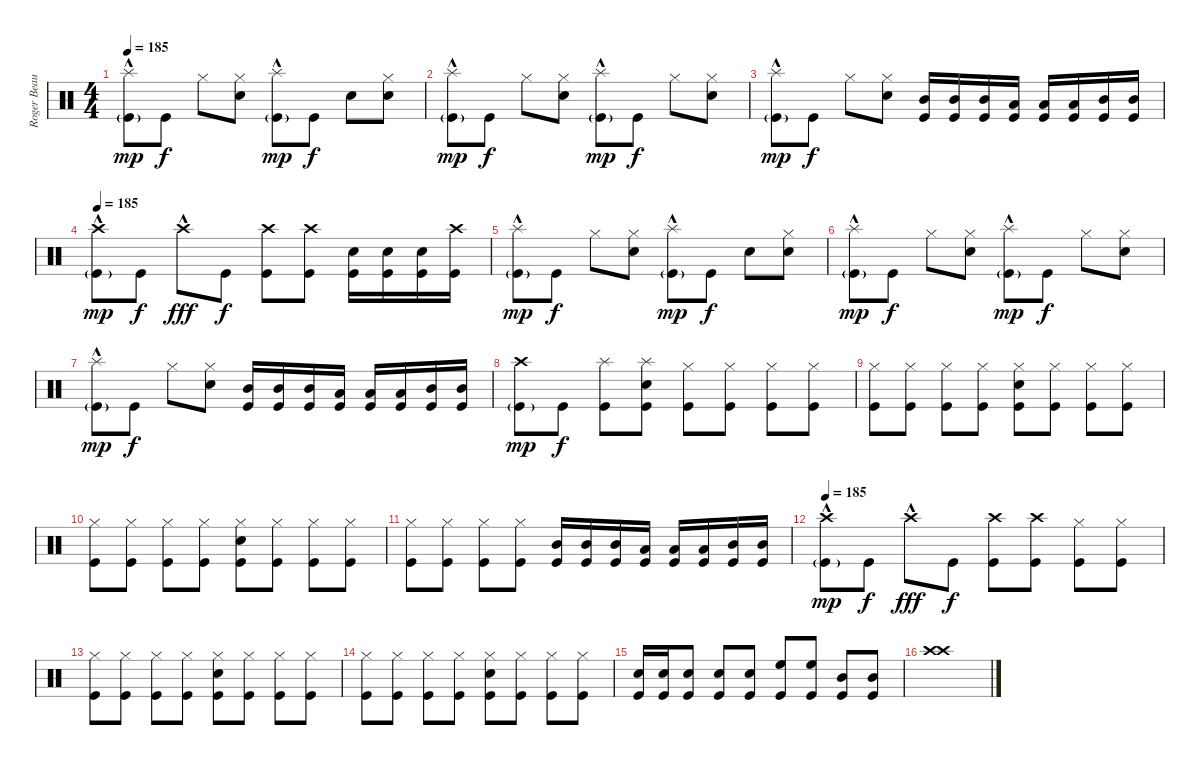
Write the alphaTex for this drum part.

\track ("Roger Beaujard - Drum Programming  Sam I" "Roger Beau") {instrument percussion}
\staff {score}
\articulation defaults
\ts (4 4)
\tempo 185
\clef neutral
\ks c
("Splash (hit)"{hac} "Kick (hit)"{g}).8{dy mp} "Kick (hit)".8{dy f} "Hi-Hat (closed)".8 ("Hi-Hat (closed)" "Snare (hit) 2").8 ("Splash (hit)"{hac} "Kick (hit)"{g}).8{dy mp} "Kick (hit)".8{dy f} "Snare (hit)".8 ("Hi-Hat (closed)" "Snare (hit) 2").8 |
("Splash (hit)"{hac} "Kick (hit)"{g}).8{dy mp} "Kick (hit)".8{dy f} "Hi-Hat (closed)".8 ("Hi-Hat (closed)" "Snare (hit) 2").8 ("Splash (hit)"{hac} "Kick (hit)"{g}).8{dy mp} "Kick (hit)".8{dy f} "Hi-Hat (closed)".8 ("Hi-Hat (closed)" "Snare (hit) 2").8 |
("Splash (hit)"{hac} "Kick (hit)"{g}).8{dy mp} "Kick (hit)".8{dy f} "Hi-Hat (closed)".8 ("Hi-Hat (closed)" "Snare (hit) 2").8 ("Mid Tom (hit)" "Kick (hit)").16 ("Mid Tom (hit)" "Kick (hit)").16 ("Mid Tom (hit)" "Kick (hit)").16 ("Low Tom (hit)" "Kick (hit)").16 ("Low Tom (hit)" "Kick (hit)").16 ("Low Tom (hit)" "Kick (hit)").16 ("Mid Tom (hit)" "Kick (hit)").16 ("Mid Tom (hit)" "Kick (hit)").16 |
\tempo 185
("Crash high (hit)"{hac} "Kick (hit)"{g}).8{dy mp} "Kick (hit)".8{dy f} "Crash high (hit)"{hac}.8{dy fff} "Kick (hit)".8{dy f} ("Crash high (hit)" "Kick (hit)").8 ("Crash high (hit)" "Kick (hit)").8 ("Electric Snare (hit)" "Kick (hit)").16 ("Electric Snare (hit)" "Kick (hit)").16 ("Electric Snare (hit)" "Kick (hit)").16 ("Crash high (hit)" "Kick (hit)").16 |
("Splash (hit)"{hac} "Kick (hit)"{g}).8{dy mp} "Kick (hit)".8{dy f} "Hi-Hat (closed)".8 ("Hi-Hat (closed)" "Snare (hit) 2").8 ("Splash (hit)"{hac} "Kick (hit)"{g}).8{dy mp} "Kick (hit)".8{dy f} "Snare (hit)".8 ("Hi-Hat (closed)" "Snare (hit) 2").8 |
("Splash (hit)"{hac} "Kick (hit)"{g}).8{dy mp} "Kick (hit)".8{dy f} "Hi-Hat (closed)".8 ("Hi-Hat (closed)" "Snare (hit) 2").8 ("Splash (hit)"{hac} "Kick (hit)"{g}).8{dy mp} "Kick (hit)".8{dy f} "Hi-Hat (closed)".8 ("Hi-Hat (closed)" "Snare (hit) 2").8 |
("Splash (hit)"{hac} "Kick (hit)"{g}).8{dy mp} "Kick (hit)".8{dy f} "Hi-Hat (closed)".8 ("Hi-Hat (closed)" "Snare (hit) 2").8 ("Mid Tom (hit)" "Kick (hit)").16 ("Mid Tom (hit)" "Kick (hit)").16 ("Mid Tom (hit)" "Kick (hit)").16 ("Low Tom (hit)" "Kick (hit)").16 ("Low Tom (hit)" "Kick (hit)").16 ("Low Tom (hit)" "Kick (hit)").16 ("Mid Tom (hit)" "Kick (hit)").16 ("Mid Tom (hit)" "Kick (hit)").16 |
("Crash high (hit)" "Kick (hit)"{g}).8{dy mp} "Kick (hit)".8{dy f} ("Splash (hit)" "Kick (hit)").8 ("Splash (hit)" "Electric Snare (hit)" "Kick (hit)").8 ("Hi-Hat (closed)" "Kick (hit)").8 ("Hi-Hat (closed)" "Kick (hit)").8 ("Hi-Hat (closed)" "Kick (hit)").8 ("Hi-Hat (closed)" "Kick (hit)").8 |
("Hi-Hat (closed)" "Kick (hit)").8 ("Hi-Hat (closed)" "Kick (hit)").8 ("Hi-Hat (closed)" "Kick (hit)").8 ("Hi-Hat (closed)" "Kick (hit)").8 ("Hi-Hat (closed)" "Electric Snare (hit)" "Kick (hit)").8 ("Hi-Hat (closed)" "Kick (hit)").8 ("Hi-Hat (closed)" "Kick (hit)").8 ("Hi-Hat (closed)" "Kick (hit)").8 |
("Hi-Hat (closed)" "Kick (hit)").8 ("Hi-Hat (closed)" "Kick (hit)").8 ("Hi-Hat (closed)" "Kick (hit)").8 ("Hi-Hat (closed)" "Kick (hit)").8 ("Hi-Hat (closed)" "Electric Snare (hit)" "Kick (hit)").8 ("Hi-Hat (closed)" "Kick (hit)").8 ("Hi-Hat (closed)" "Kick (hit)").8 ("Hi-Hat (closed)" "Kick (hit)").8 |
("Hi-Hat (closed)" "Kick (hit)").8 ("Hi-Hat (closed)" "Kick (hit)").8 ("Hi-Hat (closed)" "Kick (hit)").8 ("Hi-Hat (closed)" "Kick (hit)").8 ("Mid Tom (hit)" "Kick (hit)").16 ("Mid Tom (hit)" "Kick (hit)").16 ("Mid Tom (hit)" "Kick (hit)").16 ("Low Tom (hit)" "Kick (hit)").16 ("Low Tom (hit)" "Kick (hit)").16 ("Low Tom (hit)" "Kick (hit)").16 ("Mid Tom (hit)" "Kick (hit)").16 ("Mid Tom (hit)" "Kick (hit)").16 |
\tempo 185
("Crash high (hit)"{hac} "Kick (hit)"{g}).8{dy mp} "Kick (hit)".8{dy f} "Crash high (hit)"{hac}.8{dy fff} "Kick (hit)".8{dy f} ("Crash high (hit)" "Kick (hit)").8 ("Crash high (hit)" "Kick (hit)").8 ("Hi-Hat (closed)" "Kick (hit)").8 ("Hi-Hat (closed)" "Kick (hit)").8 |
("Hi-Hat (closed)" "Kick (hit)").8 ("Hi-Hat (closed)" "Kick (hit)").8 ("Hi-Hat (closed)" "Kick (hit)").8 ("Hi-Hat (closed)" "Kick (hit)").8 ("Hi-Hat (closed)" "Electric Snare (hit)" "Kick (hit)").8 ("Hi-Hat (closed)" "Kick (hit)").8 ("Hi-Hat (closed)" "Kick (hit)").8 ("Hi-Hat (closed)" "Kick (hit)").8 |
("Hi-Hat (closed)" "Kick (hit)").8 ("Hi-Hat (closed)" "Kick (hit)").8 ("Hi-Hat (closed)" "Kick (hit)").8 ("Hi-Hat (closed)" "Kick (hit)").8 ("Hi-Hat (closed)" "Electric Snare (hit)" "Kick (hit)").8 ("Hi-Hat (closed)" "Kick (hit)").8 ("Hi-Hat (closed)" "Kick (hit)").8 ("Hi-Hat (closed)" "Kick (hit)").8 |
("Snare (hit) 2" "Kick (hit)").16 ("Snare (hit) 2" "Kick (hit)").16 ("Snare (hit) 2" "Kick (hit)").8 ("Snare (hit) 2" "Kick (hit)").8 ("Snare (hit) 2" "Kick (hit)").8 ("High Floor Tom (hit)" "Kick (hit)").8 ("High Floor Tom (hit)" "Kick (hit)").8 ("Mid Tom (hit)" "Kick (hit)").8 ("Mid Tom (hit)" "Kick (hit)").8 |
("Crash high (hit)" "Crash high (hit)").1
